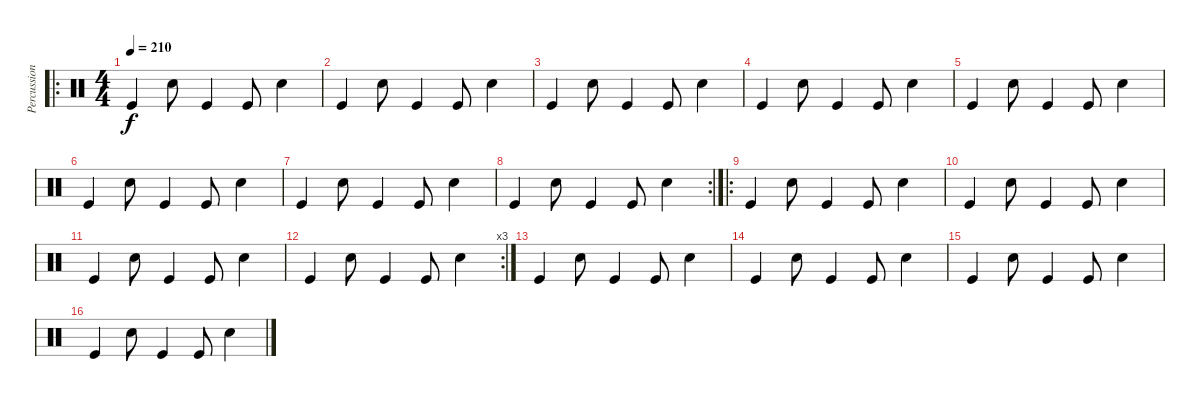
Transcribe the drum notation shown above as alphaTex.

\track ("Percussion" "Percussion") {instrument percussion}
\staff {score}
\articulation defaults
\ro
\ts (4 4)
\tempo 210
\clef neutral
\ks c "Kick (hit)".4{dy f} "Snare (hit) 2".8 "Kick (hit)".4 "Kick (hit)".8 "Snare (hit) 2".4
|
"Kick (hit)".4 "Snare (hit) 2".8 "Kick (hit)".4 "Kick (hit)".8 "Snare (hit) 2".4 |
"Kick (hit)".4 "Snare (hit) 2".8 "Kick (hit)".4 "Kick (hit)".8 "Snare (hit) 2".4 |
"Kick (hit)".4 "Snare (hit) 2".8 "Kick (hit)".4 "Kick (hit)".8 "Snare (hit) 2".4 |
"Kick (hit)".4 "Snare (hit) 2".8 "Kick (hit)".4 "Kick (hit)".8 "Snare (hit) 2".4 |
"Kick (hit)".4 "Snare (hit) 2".8 "Kick (hit)".4 "Kick (hit)".8 "Snare (hit) 2".4 |
"Kick (hit)".4 "Snare (hit) 2".8 "Kick (hit)".4 "Kick (hit)".8 "Snare (hit) 2".4 |
\rc 2 "Kick (hit)".4 "Snare (hit) 2".8 "Kick (hit)".4 "Kick (hit)".8 "Snare (hit) 2".4
|
\ro "Kick (hit)".4 "Snare (hit) 2".8 "Kick (hit)".4 "Kick (hit)".8 "Snare (hit) 2".4
|
"Kick (hit)".4 "Snare (hit) 2".8 "Kick (hit)".4 "Kick (hit)".8 "Snare (hit) 2".4 |
"Kick (hit)".4 "Snare (hit) 2".8 "Kick (hit)".4 "Kick (hit)".8 "Snare (hit) 2".4 |
\rc 3 "Kick (hit)".4 "Snare (hit) 2".8 "Kick (hit)".4 "Kick (hit)".8 "Snare (hit) 2".4
|
"Kick (hit)".4 "Snare (hit) 2".8 "Kick (hit)".4 "Kick (hit)".8 "Snare (hit) 2".4 |
"Kick (hit)".4 "Snare (hit) 2".8 "Kick (hit)".4 "Kick (hit)".8 "Snare (hit) 2".4 |
"Kick (hit)".4 "Snare (hit) 2".8 "Kick (hit)".4 "Kick (hit)".8 "Snare (hit) 2".4 |
"Kick (hit)".4 "Snare (hit) 2".8 "Kick (hit)".4 "Kick (hit)".8 "Snare (hit) 2".4
